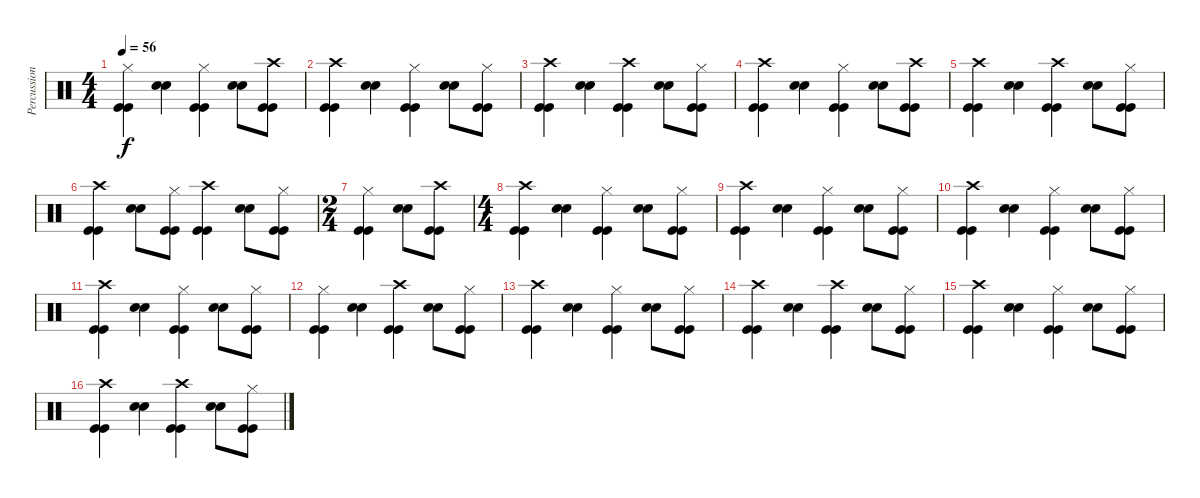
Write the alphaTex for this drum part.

\track ("Percussion" "Percussion") {instrument percussion}
\staff {score}
\articulation defaults
\ts (4 4)
\tempo 56
\clef neutral
\ks c
("Kick (hit)" "Kick (hit)" "Hi-Hat (closed)").4{dy f} ("Snare (hit) 2" "Snare (hit) 2").4 ("Kick (hit)" "Kick (hit)" "Hi-Hat (closed)").4 ("Snare (hit) 2" "Snare (hit) 2").8 ("Kick (hit)" "Kick (hit)" "Crash high (hit)").8 |
("Kick (hit)" "Kick (hit)" "Crash high (hit)").4 ("Snare (hit) 2" "Snare (hit) 2").4 ("Kick (hit)" "Kick (hit)" "Hi-Hat (closed)").4 ("Snare (hit) 2" "Snare (hit) 2").8 ("Kick (hit)" "Kick (hit)" "Hi-Hat (closed)").8 |
("Kick (hit)" "Kick (hit)" "Crash high (hit)").4 ("Snare (hit) 2" "Snare (hit) 2").4 ("Kick (hit)" "Kick (hit)" "Crash high (hit)").4 ("Snare (hit) 2" "Snare (hit) 2").8 ("Kick (hit)" "Kick (hit)" "Hi-Hat (closed)").8 |
("Kick (hit)" "Kick (hit)" "Crash high (hit)").4 ("Snare (hit) 2" "Snare (hit) 2").4 ("Kick (hit)" "Kick (hit)" "Hi-Hat (closed)").4 ("Snare (hit) 2" "Snare (hit) 2").8 ("Kick (hit)" "Kick (hit)" "Crash high (hit)").8 |
("Kick (hit)" "Kick (hit)" "Crash high (hit)").4 ("Snare (hit) 2" "Snare (hit) 2").4 ("Kick (hit)" "Kick (hit)" "Crash high (hit)").4 ("Snare (hit) 2" "Snare (hit) 2").8 ("Kick (hit)" "Kick (hit)" "Hi-Hat (closed)").8 |
("Kick (hit)" "Kick (hit)" "Crash high (hit)").4 ("Snare (hit) 2" "Snare (hit) 2").8 ("Kick (hit)" "Kick (hit)" "Hi-Hat (closed)").8 ("Kick (hit)" "Kick (hit)" "Crash high (hit)").4 ("Snare (hit) 2" "Snare (hit) 2").8 ("Kick (hit)" "Kick (hit)" "Hi-Hat (closed)").8 |
\ts (2 4)
("Kick (hit)" "Kick (hit)" "Hi-Hat (closed)").4 ("Snare (hit) 2" "Snare (hit) 2").8 ("Kick (hit)" "Kick (hit)" "Crash high (hit)").8 |
\ts (4 4)
("Kick (hit)" "Kick (hit)" "Crash high (hit)").4 ("Snare (hit) 2" "Snare (hit) 2").4 ("Kick (hit)" "Kick (hit)" "Hi-Hat (closed)").4 ("Snare (hit) 2" "Snare (hit) 2").8 ("Kick (hit)" "Kick (hit)" "Hi-Hat (closed)").8 |
("Kick (hit)" "Kick (hit)" "Crash high (hit)").4 ("Snare (hit) 2" "Snare (hit) 2").4 ("Kick (hit)" "Kick (hit)" "Hi-Hat (closed)").4 ("Snare (hit) 2" "Snare (hit) 2").8 ("Kick (hit)" "Kick (hit)" "Hi-Hat (closed)").8 |
("Kick (hit)" "Kick (hit)" "Crash high (hit)").4 ("Snare (hit) 2" "Snare (hit) 2").4 ("Kick (hit)" "Kick (hit)" "Hi-Hat (closed)").4 ("Snare (hit) 2" "Snare (hit) 2").8 ("Kick (hit)" "Kick (hit)" "Hi-Hat (closed)").8 |
("Kick (hit)" "Kick (hit)" "Crash high (hit)").4 ("Snare (hit) 2" "Snare (hit) 2").4 ("Kick (hit)" "Kick (hit)" "Hi-Hat (closed)").4 ("Snare (hit) 2" "Snare (hit) 2").8 ("Kick (hit)" "Kick (hit)" "Hi-Hat (closed)").8 |
("Kick (hit)" "Kick (hit)" "Hi-Hat (closed)").4 ("Snare (hit) 2" "Snare (hit) 2").4 ("Kick (hit)" "Kick (hit)" "Crash high (hit)").4 ("Snare (hit) 2" "Snare (hit) 2").8 ("Kick (hit)" "Kick (hit)" "Hi-Hat (closed)").8 |
("Kick (hit)" "Kick (hit)" "Crash high (hit)").4 ("Snare (hit) 2" "Snare (hit) 2").4 ("Kick (hit)" "Kick (hit)" "Hi-Hat (closed)").4 ("Snare (hit) 2" "Snare (hit) 2").8 ("Kick (hit)" "Kick (hit)" "Hi-Hat (closed)").8 |
("Kick (hit)" "Kick (hit)" "Crash high (hit)").4 ("Snare (hit) 2" "Snare (hit) 2").4 ("Kick (hit)" "Kick (hit)" "Crash high (hit)").4 ("Snare (hit) 2" "Snare (hit) 2").8 ("Kick (hit)" "Kick (hit)" "Hi-Hat (closed)").8 |
("Kick (hit)" "Kick (hit)" "Crash high (hit)").4 ("Snare (hit) 2" "Snare (hit) 2").4 ("Kick (hit)" "Kick (hit)" "Hi-Hat (closed)").4 ("Snare (hit) 2" "Snare (hit) 2").8 ("Kick (hit)" "Kick (hit)" "Hi-Hat (closed)").8 |
("Kick (hit)" "Kick (hit)" "Crash high (hit)").4 ("Snare (hit) 2" "Snare (hit) 2").4 ("Kick (hit)" "Kick (hit)" "Crash high (hit)").4 ("Snare (hit) 2" "Snare (hit) 2").8 ("Kick (hit)" "Kick (hit)" "Hi-Hat (closed)").8
